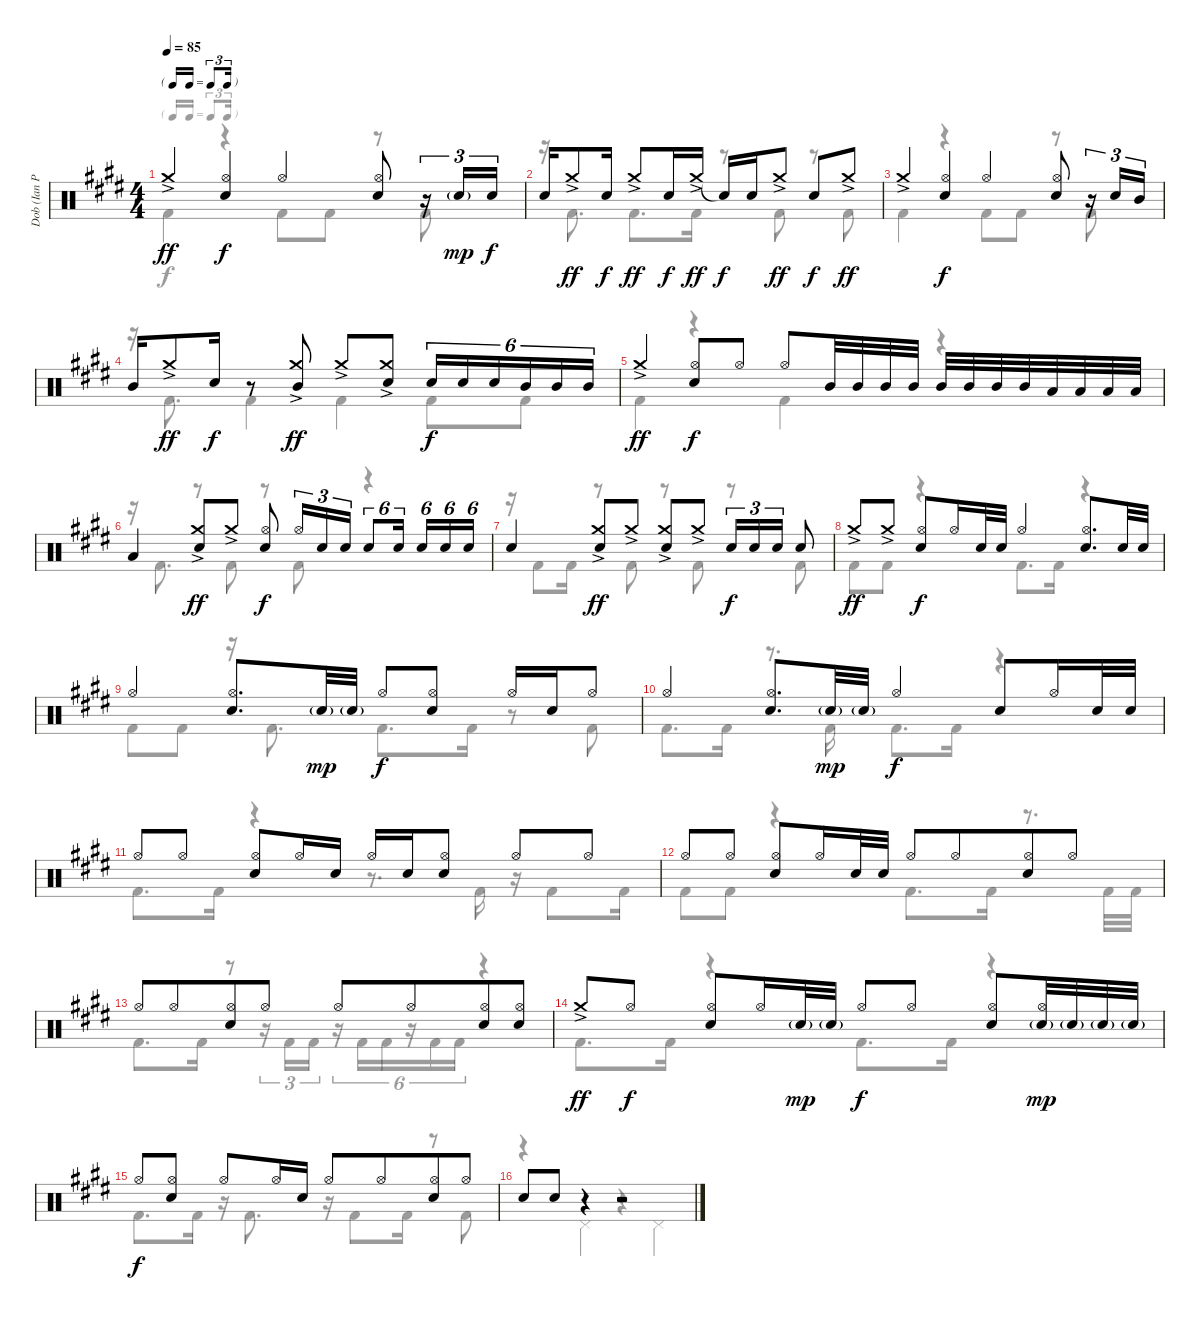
\track ("Dob (Ian Paice)" "Dob (Ian P") {instrument percussion}
\staff {score}
\articulation defaults
\voice
\ts (4 4)
\tf triplet16th
\tempo 85
\clef neutral
\ks e "Crash medium (hit)"{ac}.4{dy ff}
("Hi-Hat (open)" "Electric Snare (hit)").4{dy f} "Hi-Hat (open)".4 ("Hi-Hat (open)" "Electric Snare (hit)").8 r.16{tu (3 2)} "Electric Snare (hit)"{g}.16{tu (3 2) dy mp} "Electric Snare (hit)".16{tu (3 2) dy f} |
"Electric Snare (hit)".16 "Crash medium (hit)"{ac}.8{dy ff} "Electric Snare (hit)".16{dy f} "Crash medium (hit)"{ac}.8{dy ff} "Electric Snare (hit)".16{dy f} "Crash medium (hit)"{ac}.16{dy ff} "Snare (hit)"{t}.16{dy f} "Electric Snare (hit)".16 "Crash medium (hit)"{ac}.8{dy ff} "Electric Snare (hit)".8{dy f} "Crash medium (hit)"{ac}.8{dy ff} |
"Crash medium (hit)"{ac}.4 ("Hi-Hat (open)" "Electric Snare (hit)").4{dy f} "Hi-Hat (open)".4 ("Hi-Hat (open)" "Electric Snare (hit)").8 r.16{tu (3 2)} "Electric Snare (hit)".16{tu (3 2)} "Mid Tom (hit)".16{tu (3 2)} |
"Mid Tom (hit)".16 "Crash medium (hit)"{ac}.8{dy ff} "Electric Snare (hit)".16{dy f} r.8 ("Crash medium (hit)"{ac} "Mid Tom (hit)").8{dy ff} "Crash medium (hit)"{ac}.8 ("Crash medium (hit)"{ac} "Electric Snare (hit)").8 "Electric Snare (hit)".16{tu (6 4) dy f} "Electric Snare (hit)".16{tu (6 4)} "Electric Snare (hit)".16{tu (6 4)} "Mid Tom (hit)".16{tu (6 4)} "Mid Tom (hit)".16{tu (6 4)} "Mid Tom (hit)".16{tu (6 4)} |
"Crash medium (hit)"{ac}.4{dy ff} ("Hi-Hat (open)" "Electric Snare (hit)").8{dy f} "Hi-Hat (open)".8 "Hi-Hat (open)".8 "Mid Tom (hit)".32 "Mid Tom (hit)".32 "Mid Tom (hit)".32 "Mid Tom (hit)".32 "Mid Tom (hit)".32 "Mid Tom (hit)".32 "Mid Tom (hit)".32 "Mid Tom (hit)".32 "Low Tom (hit)".32 "Low Tom (hit)".32 "Low Tom (hit)".32 "Low Tom (hit)".32 |
"Low Tom (hit)".4 ("Crash medium (hit)"{ac} "Electric Snare (hit)").8{dy ff} "Crash medium (hit)"{ac}.8 ("Hi-Hat (open)" "Electric Snare (hit)").8{dy f} "Hi-Hat (open)".16{tu (3 2)} "Electric Snare (hit)".16{tu (3 2)} "Electric Snare (hit)".16{tu (3 2)} "Electric Snare (hit)".8{tu (6 4)} "Electric Snare (hit)".16{tu (6 4)} "Electric Snare (hit)".16{tu (6 4)} "Electric Snare (hit)".16{tu (6 4)} "Electric Snare (hit)".16{tu (6 4)} |
"Electric Snare (hit)".4 ("Crash medium (hit)"{ac} "Electric Snare (hit)").8{dy ff} "Crash medium (hit)"{ac}.8 ("Crash medium (hit)"{ac} "Electric Snare (hit)").8 "Crash medium (hit)"{ac}.8 "Electric Snare (hit)".16{tu (3 2) dy f} "Electric Snare (hit)".16{tu (3 2)} "Electric Snare (hit)".16{tu (3 2)} "Electric Snare (hit)".8 |
"Crash medium (hit)"{ac}.8{dy ff} "Crash medium (hit)"{ac}.8 ("Hi-Hat (open)" "Electric Snare (hit)").8{dy f} "Hi-Hat (open)".16 "Electric Snare (hit)".32 "Electric Snare (hit)".32 "Hi-Hat (open)".4 ("Hi-Hat (open)" "Electric Snare (hit)").8{d} "Electric Snare (hit)".32 "Electric Snare (hit)".32 |
"Hi-Hat (open)".4 ("Hi-Hat (open)" "Electric Snare (hit)").8{d} "Electric Snare (hit)"{g}.32{dy mp} "Electric Snare (hit)"{g}.32 "Hi-Hat (open)".8{dy f} ("Hi-Hat (open)" "Electric Snare (hit)").8 "Hi-Hat (open)".16 "Electric Snare (hit)".16 "Hi-Hat (open)".8 |
"Hi-Hat (open)".4 ("Hi-Hat (open)" "Electric Snare (hit)").8{d} "Electric Snare (hit)"{g}.32{dy mp} "Electric Snare (hit)"{g}.32 "Hi-Hat (open)".4{dy f} "Electric Snare (hit)".8 "Hi-Hat (open)".16 "Electric Snare (hit)".32 "Electric Snare (hit)".32 |
"Hi-Hat (open)".8 "Hi-Hat (open)".8 ("Hi-Hat (open)" "Electric Snare (hit)").8 "Hi-Hat (open)".16 "Electric Snare (hit)".16 "Hi-Hat (open)".16 "Electric Snare (hit)".16 ("Hi-Hat (open)" "Electric Snare (hit)").8 "Hi-Hat (open)".8 "Hi-Hat (open)".8 |
"Hi-Hat (open)".8 "Hi-Hat (open)".8 ("Hi-Hat (open)" "Electric Snare (hit)").8 "Hi-Hat (open)".16 "Electric Snare (hit)".32 "Electric Snare (hit)".32 "Hi-Hat (open)".8 "Hi-Hat (open)".8{beam merge} ("Hi-Hat (open)" "Electric Snare (hit)").8 "Hi-Hat (open)".8 |
"Hi-Hat (open)".8 "Hi-Hat (open)".8{beam merge} ("Hi-Hat (open)" "Electric Snare (hit)").8 "Hi-Hat (open)".8 "Hi-Hat (open)".8 "Hi-Hat (open)".8{beam merge} ("Hi-Hat (open)" "Electric Snare (hit)").8 ("Hi-Hat (open)" "Electric Snare (hit)").8 |
"Crash medium (hit)"{ac}.8{dy ff} "Hi-Hat (open)".8{dy f} ("Hi-Hat (open)" "Electric Snare (hit)").8 "Hi-Hat (open)".16 "Electric Snare (hit)"{g}.32{dy mp} "Electric Snare (hit)"{g}.32 "Hi-Hat (open)".8{dy f} "Hi-Hat (open)".8 ("Hi-Hat (open)" "Electric Snare (hit)").8 ("Hi-Hat (open)" "Electric Snare (hit)"{g}).32{dy mp} "Electric Snare (hit)"{g}.32 "Electric Snare (hit)"{g}.32 "Electric Snare (hit)"{g}.32 |
"Hi-Hat (open)".8{dy f} ("Hi-Hat (open)" "Electric Snare (hit)").8 "Hi-Hat (open)".8 "Hi-Hat (open)".16 "Electric Snare (hit)".16 "Hi-Hat (open)".8 "Hi-Hat (open)".8{beam merge} ("Hi-Hat (open)" "Electric Snare (hit)").8 "Hi-Hat (open)".8 |
"Electric Snare (hit)".8 "Electric Snare (hit)".8 r.4 r.2
\voice
\clef neutral
\ottava regular
\simile none
\ks e "Kick (hit) 2".4{dy f}
r.4 "Kick (hit) 2".8 "Kick (hit) 2".8 r.8 "Kick (hit) 2".8 |
r.16 "Kick (hit) 2".8{d} "Kick (hit) 2".8{d} "Kick (hit) 2".16 r.8{beam merge} "Kick (hit) 2".8 r.8 "Kick (hit) 2".8 |
"Kick (hit) 2".4 r.4 "Kick (hit) 2".8 "Kick (hit) 2".8 r.8 "Kick (hit) 2".8 |
r.16 "Kick (hit) 2".8{d} "Kick (hit) 2".4 "Kick (hit) 2".4 "Kick (hit) 2".8 "Kick (hit) 2".8 |
"Kick (hit) 2".4 r.4 "Kick (hit) 2".4 r.4 |
r.16 "Kick (hit) 2".8{d} r.8 "Kick (hit) 2".8 r.8 "Kick (hit) 2".8 r.4 |
r.16 "Kick (hit) 2".8 "Kick (hit) 2".16 r.8 "Kick (hit) 2".8 r.8 "Kick (hit) 2".8 r.8 "Kick (hit) 2".8 |
"Kick (hit) 2".8 "Kick (hit) 2".8 r.4 "Kick (hit) 2".8{d} "Kick (hit) 2".16 r.4 |
"Kick (hit) 2".8 "Kick (hit) 2".8 r.16 "Kick (hit) 2".8{d} "Kick (hit) 2".8{d} "Kick (hit) 2".16 r.8 "Kick (hit) 2".8 |
"Kick (hit) 2".8{d} "Kick (hit) 2".16 r.8{d} "Kick (hit) 2".16 "Kick (hit) 2".8{d} "Kick (hit) 2".16 r.4 |
"Kick (hit) 2".8{d} "Kick (hit) 2".16 r.4 r.8{d} "Kick (hit) 2".16 r.16 "Kick (hit) 2".8 "Kick (hit) 2".16 |
"Kick (hit) 2".8 "Kick (hit) 2".8 r.4 "Kick (hit) 2".8{d} "Kick (hit) 2".16 r.8{d} "Kick (hit) 2".32 "Kick (hit) 2".32 |
"Kick (hit) 2".8{d} "Kick (hit) 2".16 r.8 r.16{tu (3 2)} "Kick (hit) 2".16{tu (3 2)} "Kick (hit) 2".16{tu (3 2)} r.16{tu (6 4)} "Kick (hit) 2".16{tu (6 4)} "Kick (hit) 2".16{tu (6 4)} r.16{tu (6 4)} "Kick (hit) 2".16{tu (6 4)} "Kick (hit) 2".16{tu (6 4)} r.4 |
"Kick (hit) 2".8{d} "Kick (hit) 2".16 r.4 "Kick (hit) 2".8{d} "Kick (hit) 2".16 r.4 |
"Kick (hit) 2".8{d} "Kick (hit) 2".16 r.16 "Kick (hit) 2".8{d} r.16 "Kick (hit) 2".8 "Kick (hit) 2".16 r.8 "Kick (hit) 2".8 |
r.4 "Pedal Hi-Hat (hit)".4 r.4 "Pedal Hi-Hat (hit)".4
